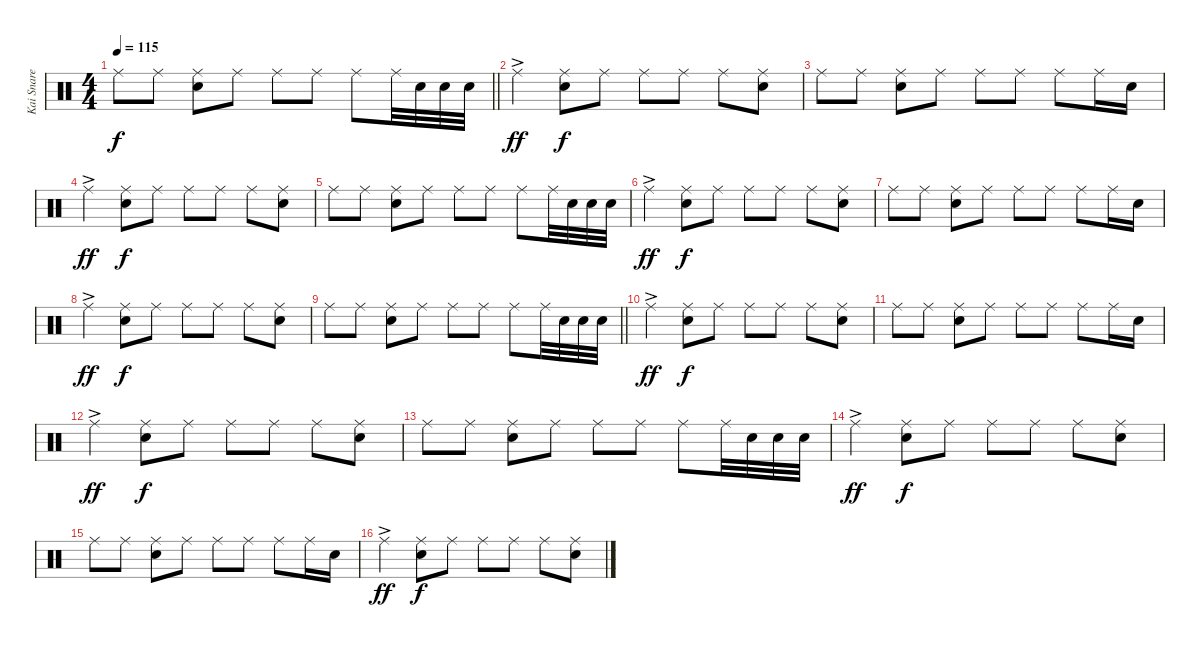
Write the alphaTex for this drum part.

\track ("Kai Snare" "Kai Snare") {instrument percussion}
\staff {score}
\articulation defaults
\ts (4 4)
\tempo 115
\clef neutral
\barLineRight lightlight
\ks c "Ride (middle)".8{dy f} "Ride (middle)".8
("Ride (middle)" "Snare (hit) 2").8 "Ride (middle)".8 "Ride (middle)".8 "Ride (middle)".8 "Ride (middle)".8 "Ride (middle)".32 "Snare (hit) 2".32 "Snare (hit) 2".32 "Snare (hit) 2".32 |
"Ride (middle)"{ac}.4{dy ff} ("Ride (middle)" "Snare (hit) 2").8{dy f} "Ride (middle)".8 "Ride (middle)".8 "Ride (middle)".8 "Ride (middle)".8 ("Ride (middle)" "Snare (hit) 2").8 |
"Ride (middle)".8 "Ride (middle)".8 ("Ride (middle)" "Snare (hit) 2").8 "Ride (middle)".8 "Ride (middle)".8 "Ride (middle)".8 "Ride (middle)".8 "Ride (middle)".16 "Snare (hit) 2".16 |
"Ride (middle)"{ac}.4{dy ff} ("Ride (middle)" "Snare (hit) 2").8{dy f} "Ride (middle)".8 "Ride (middle)".8 "Ride (middle)".8 "Ride (middle)".8 ("Ride (middle)" "Snare (hit) 2").8 |
"Ride (middle)".8 "Ride (middle)".8 ("Ride (middle)" "Snare (hit) 2").8 "Ride (middle)".8 "Ride (middle)".8 "Ride (middle)".8 "Ride (middle)".8 "Ride (middle)".32 "Snare (hit) 2".32 "Snare (hit) 2".32 "Snare (hit) 2".32 |
"Ride (middle)"{ac}.4{dy ff} ("Ride (middle)" "Snare (hit) 2").8{dy f} "Ride (middle)".8 "Ride (middle)".8 "Ride (middle)".8 "Ride (middle)".8 ("Ride (middle)" "Snare (hit) 2").8 |
"Ride (middle)".8 "Ride (middle)".8 ("Ride (middle)" "Snare (hit) 2").8 "Ride (middle)".8 "Ride (middle)".8 "Ride (middle)".8 "Ride (middle)".8 "Ride (middle)".16 "Snare (hit) 2".16 |
"Ride (middle)"{ac}.4{dy ff} ("Ride (middle)" "Snare (hit) 2").8{dy f} "Ride (middle)".8 "Ride (middle)".8 "Ride (middle)".8 "Ride (middle)".8 ("Ride (middle)" "Snare (hit) 2").8 |
\barLineRight lightlight "Ride (middle)".8 "Ride (middle)".8
("Ride (middle)" "Snare (hit) 2").8 "Ride (middle)".8 "Ride (middle)".8 "Ride (middle)".8 "Ride (middle)".8 "Ride (middle)".32 "Snare (hit) 2".32 "Snare (hit) 2".32 "Snare (hit) 2".32 |
"Ride (middle)"{ac}.4{dy ff} ("Ride (middle)" "Snare (hit) 2").8{dy f} "Ride (middle)".8 "Ride (middle)".8 "Ride (middle)".8 "Ride (middle)".8 ("Ride (middle)" "Snare (hit) 2").8 |
"Ride (middle)".8 "Ride (middle)".8 ("Ride (middle)" "Snare (hit) 2").8 "Ride (middle)".8 "Ride (middle)".8 "Ride (middle)".8 "Ride (middle)".8 "Ride (middle)".16 "Snare (hit) 2".16 |
"Ride (middle)"{ac}.4{dy ff} ("Ride (middle)" "Snare (hit) 2").8{dy f} "Ride (middle)".8 "Ride (middle)".8 "Ride (middle)".8 "Ride (middle)".8 ("Ride (middle)" "Snare (hit) 2").8 |
"Ride (middle)".8 "Ride (middle)".8 ("Ride (middle)" "Snare (hit) 2").8 "Ride (middle)".8 "Ride (middle)".8 "Ride (middle)".8 "Ride (middle)".8 "Ride (middle)".32 "Snare (hit) 2".32 "Snare (hit) 2".32 "Snare (hit) 2".32 |
"Ride (middle)"{ac}.4{dy ff} ("Ride (middle)" "Snare (hit) 2").8{dy f} "Ride (middle)".8 "Ride (middle)".8 "Ride (middle)".8 "Ride (middle)".8 ("Ride (middle)" "Snare (hit) 2").8 |
"Ride (middle)".8 "Ride (middle)".8 ("Ride (middle)" "Snare (hit) 2").8 "Ride (middle)".8 "Ride (middle)".8 "Ride (middle)".8 "Ride (middle)".8 "Ride (middle)".16 "Snare (hit) 2".16 |
"Ride (middle)"{ac}.4{dy ff} ("Ride (middle)" "Snare (hit) 2").8{dy f} "Ride (middle)".8 "Ride (middle)".8 "Ride (middle)".8 "Ride (middle)".8 ("Ride (middle)" "Snare (hit) 2").8
